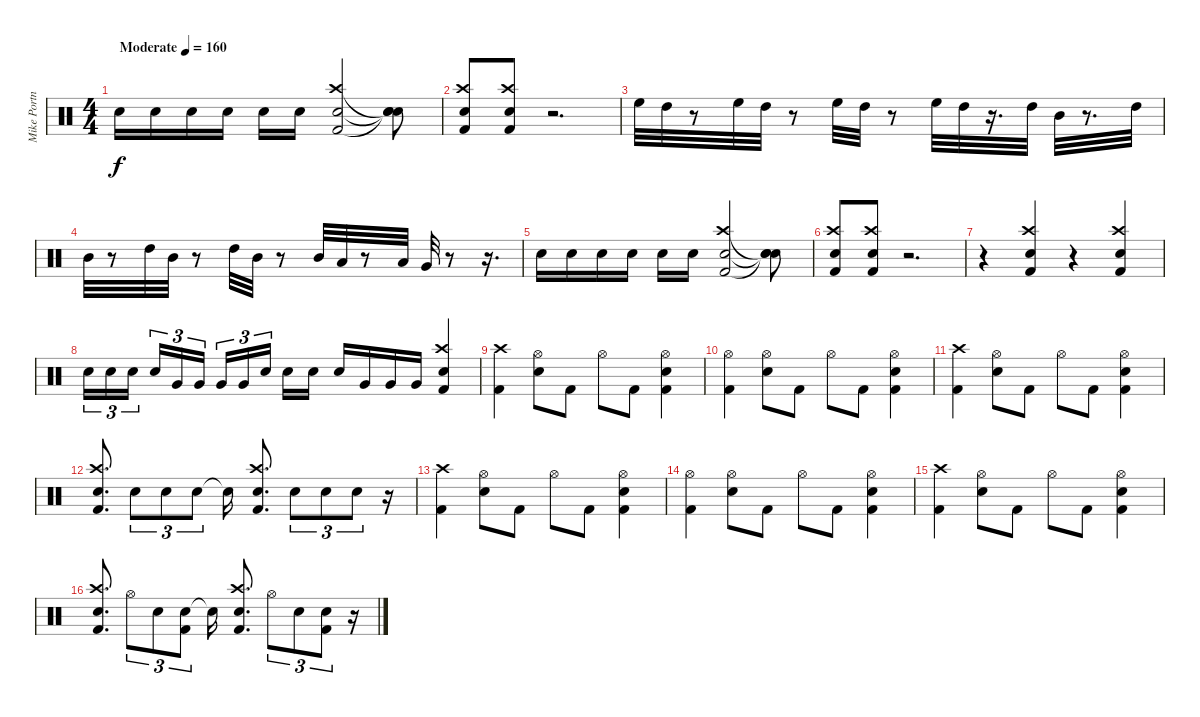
\track ("Mike Portnoy" "Mike Portn") {instrument percussion}
\staff {score}
\articulation defaults
\ts (4 4)
\tempo (160 "Moderate")
\clef neutral
\ks c "Electric Snare (hit)".16{dy f} "Electric Snare (hit)".16 "Electric Snare (hit)".16 "Electric Snare (hit)".16 "Electric Snare (hit)".16 "Electric Snare (hit)".16
("Electric Snare (hit)" "Crash high (hit)" "Kick (hit) 2").2 ("Snare (hit)"{t} "Snare (hit)"{t} "Snare (hit)"{t}).8 |
("Electric Snare (hit)" "Crash high (hit)" "Kick (hit) 2").8 ("Electric Snare (hit)" "Crash high (hit)" "Kick (hit) 2").8 r.2{d} |
"High Floor Tom (hit)".32 "High Tom (hit)".32 r.8 "High Floor Tom (hit)".32 "High Tom (hit)".32 r.8 "High Floor Tom (hit)".32 "High Tom (hit)".32 r.8 "High Floor Tom (hit)".32 "High Tom (hit)".32 r.16{d} "High Tom (hit)".32 "Mid Tom (hit)".32 r.8{d} "High Tom (hit)".32 |
"Mid Tom (hit)".32 r.8 "High Tom (hit)".32 "Mid Tom (hit)".32 r.8 "High Tom (hit)".32 "Mid Tom (hit)".32 r.8 "Mid Tom (hit)".32 "Low Tom (hit)".32 r.8 "Low Tom (hit)".32 "Very Low Tom (hit)".32 r.8 r.16{d} |
"Electric Snare (hit)".16 "Electric Snare (hit)".16 "Electric Snare (hit)".16 "Electric Snare (hit)".16 "Electric Snare (hit)".16 "Electric Snare (hit)".16 ("Electric Snare (hit)" "Crash high (hit)" "Kick (hit) 2").2 ("Snare (hit)"{t} "Snare (hit)"{t} "Snare (hit)"{t}).8 |
("Electric Snare (hit)" "Crash high (hit)" "Kick (hit) 2").8 ("Electric Snare (hit)" "Crash high (hit)" "Kick (hit) 2").8 r.2{d} |
r.4 ("Electric Snare (hit)" "Crash high (hit)" "Kick (hit) 2").4 r.4 ("Electric Snare (hit)" "Crash high (hit)" "Kick (hit) 2").4 |
"Electric Snare (hit)".16{tu (3 2)} "Electric Snare (hit)".16{tu (3 2)} "Electric Snare (hit)".16{tu (3 2) beam splitsecondary} "Electric Snare (hit)".16{tu (3 2)} "Very Low Tom (hit)".16{tu (3 2)} "Very Low Tom (hit)".16{tu (3 2)} "Very Low Tom (hit)".16{tu (3 2)} "Very Low Tom (hit)".16{tu (3 2)} "Electric Snare (hit)".16{tu (3 2) beam splitsecondary} "Electric Snare (hit)".16 "Electric Snare (hit)".16 "Electric Snare (hit)".16 "Very Low Tom (hit)".16 "Very Low Tom (hit)".16 "Very Low Tom (hit)".16 ("Electric Snare (hit)" "Crash high (hit)" "Kick (hit) 2").4 |
("Crash high (hit)" "Kick (hit) 2").4 ("Hi-Hat (open)" "Electric Snare (hit)").8 "Kick (hit) 2".8 "Hi-Hat (open)".8 "Kick (hit) 2".8 ("Hi-Hat (open)" "Electric Snare (hit)" "Kick (hit) 2").4 |
("Hi-Hat (open)" "Kick (hit) 2").4 ("Hi-Hat (open)" "Electric Snare (hit)").8 "Kick (hit) 2".8 "Hi-Hat (open)".8 "Kick (hit) 2".8 ("Hi-Hat (open)" "Electric Snare (hit)" "Kick (hit) 2").4 |
("Crash high (hit)" "Kick (hit) 2").4 ("Hi-Hat (open)" "Electric Snare (hit)").8 "Kick (hit) 2".8 "Hi-Hat (open)".8 "Kick (hit) 2".8 ("Hi-Hat (open)" "Electric Snare (hit)" "Kick (hit) 2").4 |
("Crash high (hit)" "Electric Snare (hit)" "Kick (hit) 2").8{d} "Electric Snare (hit)".8{tu (3 2)} "Electric Snare (hit)".8{tu (3 2)} "Electric Snare (hit)".8{tu (3 2)} "Snare (hit)"{t}.16 ("Crash high (hit)" "Electric Snare (hit)" "Kick (hit) 2").8{d} "Electric Snare (hit)".8{tu (3 2)} "Electric Snare (hit)".8{tu (3 2)} "Electric Snare (hit)".8{tu (3 2)} r.16 |
("Crash high (hit)" "Kick (hit) 2").4 ("Hi-Hat (open)" "Electric Snare (hit)").8 "Kick (hit) 2".8 "Hi-Hat (open)".8 "Kick (hit) 2".8 ("Hi-Hat (open)" "Electric Snare (hit)" "Kick (hit) 2").4 |
("Hi-Hat (open)" "Kick (hit) 2").4 ("Hi-Hat (open)" "Electric Snare (hit)").8 "Kick (hit) 2".8 "Hi-Hat (open)".8 "Kick (hit) 2".8 ("Hi-Hat (open)" "Electric Snare (hit)" "Kick (hit) 2").4 |
("Crash high (hit)" "Kick (hit) 2").4 ("Hi-Hat (open)" "Electric Snare (hit)").8 "Kick (hit) 2".8 "Hi-Hat (open)".8 "Kick (hit) 2".8 ("Hi-Hat (open)" "Electric Snare (hit)" "Kick (hit) 2").4 |
("Crash high (hit)" "Electric Snare (hit)" "Kick (hit) 2").8{d} "Hi-Hat (open)".8{tu (3 2)} "Electric Snare (hit)".8{tu (3 2)} ("Electric Snare (hit)" "Kick (hit) 2").8{tu (3 2)} "Snare (hit)"{t}.16 ("Crash high (hit)" "Electric Snare (hit)" "Kick (hit) 2").8{d} "Hi-Hat (open)".8{tu (3 2)} "Electric Snare (hit)".8{tu (3 2)} ("Electric Snare (hit)" "Kick (hit) 2").8{tu (3 2)} r.16
